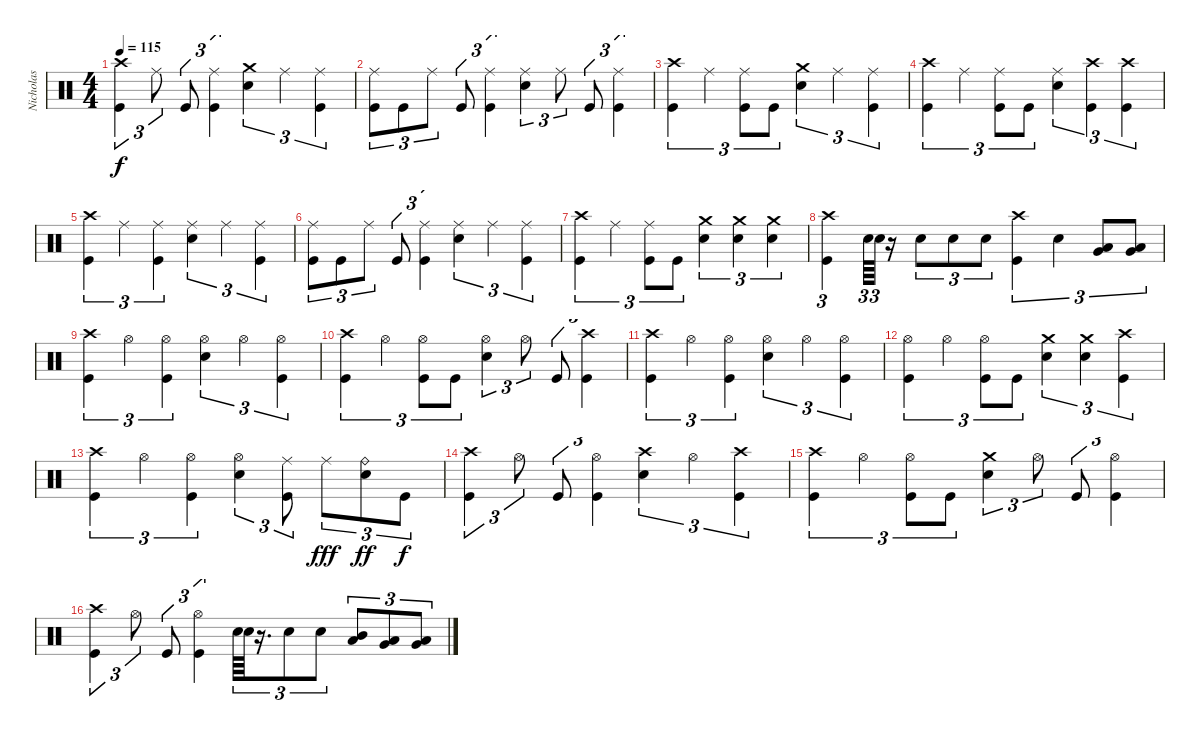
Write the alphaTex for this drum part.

\track ("Nicholas" "Nicholas") {instrument percussion}
\staff {score}
\articulation defaults
\ts (4 4)
\tempo 115
\clef neutral
\ks c
("Crash high (hit)" "Kick (hit)").4{tu (3 2) dy f} "Ride (middle)".8{tu (3 2)} "Kick (hit)".8{tu (3 2)} ("Ride (middle)" "Kick (hit)").4{tu (3 2)} ("Crash medium (hit)" "Electric Snare (hit)").4{tu (3 2)} "Ride (middle)".4{tu (3 2)} ("Ride (middle)" "Kick (hit)").4{tu (3 2)} |
("Ride (middle)" "Kick (hit)").8{tu (3 2)} "Kick (hit)".8{tu (3 2)} "Ride (middle)".8{tu (3 2)} "Kick (hit)".8{tu (3 2)} ("Ride (middle)" "Kick (hit)").4{tu (3 2)} ("Ride (middle)" "Electric Snare (hit)").4{tu (3 2)} "Ride (middle)".8{tu (3 2)} "Kick (hit)".8{tu (3 2)} ("Ride (middle)" "Kick (hit)").4{tu (3 2)} |
("Crash high (hit)" "Kick (hit)").4{tu (3 2)} "Ride (middle)".4{tu (3 2)} ("Ride (middle)" "Kick (hit)").8{tu (3 2)} "Kick (hit)".8{tu (3 2)} ("Crash medium (hit)" "Electric Snare (hit)").4{tu (3 2)} "Ride (middle)".4{tu (3 2)} ("Ride (middle)" "Kick (hit)").4{tu (3 2)} |
("Crash high (hit)" "Kick (hit)").4{tu (3 2)} "Ride (middle)".4{tu (3 2)} ("Ride (middle)" "Kick (hit)").8{tu (3 2)} "Kick (hit)".8{tu (3 2)} ("Ride (middle)" "Electric Snare (hit)").4{tu (3 2)} ("Crash high (hit)" "Kick (hit)").4{tu (3 2)} ("Crash high (hit)" "Kick (hit)").4{tu (3 2)} |
("Crash high (hit)" "Kick (hit)").4{tu (3 2)} "Ride (middle)".4{tu (3 2)} ("Ride (middle)" "Kick (hit)").4{tu (3 2)} ("Ride (middle)" "Electric Snare (hit)").4{tu (3 2)} "Ride (middle)".4{tu (3 2)} ("Ride (middle)" "Kick (hit)").4{tu (3 2)} |
("Ride (middle)" "Kick (hit)").8{tu (3 2)} "Kick (hit)".8{tu (3 2)} "Ride (middle)".8{tu (3 2)} "Kick (hit)".8{tu (3 2)} ("Ride (middle)" "Kick (hit)").4{tu (3 2)} ("Ride (middle)" "Electric Snare (hit)").4{tu (3 2)} "Ride (middle)".4{tu (3 2)} ("Ride (middle)" "Kick (hit)").4{tu (3 2)} |
("Crash high (hit)" "Kick (hit)").4{tu (3 2)} "Ride (middle)".4{tu (3 2)} ("Ride (middle)" "Kick (hit)").8{tu (3 2)} "Kick (hit)".8{tu (3 2)} ("Crash medium (hit)" "Electric Snare (hit)").4{tu (3 2)} ("Crash medium (hit)" "Electric Snare (hit)").4{tu (3 2)} ("Crash medium (hit)" "Electric Snare (hit)").4{tu (3 2)} |
("Crash high (hit)" "Kick (hit)").4{tu (3 2)} "Electric Snare (hit)".64{tu (3 2)} "Electric Snare (hit)".64{tu (3 2)} r.16 "Electric Snare (hit)".8{tu (3 2)} "Electric Snare (hit)".8{tu (3 2)} "Electric Snare (hit)".8{tu (3 2)} ("Crash high (hit)" "Kick (hit)").4{tu (3 2)} "Electric Snare (hit)".4{tu (3 2)} ("Low Tom (hit)" "Very Low Tom (hit)").8{tu (3 2) bu 60} ("Low Tom (hit)" "Very Low Tom (hit)").8{tu (3 2) bu 60} |
("Crash high (hit)" "Kick (hit)").4{tu (3 2)} "Hi-Hat (open)".4{tu (3 2)} ("Hi-Hat (open)" "Kick (hit)").4{tu (3 2)} ("Hi-Hat (open)" "Electric Snare (hit)").4{tu (3 2)} "Hi-Hat (open)".4{tu (3 2)} ("Hi-Hat (open)" "Kick (hit)").4{tu (3 2)} |
("Crash high (hit)" "Kick (hit)").4{tu (3 2)} "Hi-Hat (open)".4{tu (3 2)} ("Hi-Hat (open)" "Kick (hit)").8{tu (3 2)} "Kick (hit)".8{tu (3 2)} ("Hi-Hat (open)" "Electric Snare (hit)").4{tu (3 2)} "Hi-Hat (open)".8{tu (3 2)} "Kick (hit)".8{tu (3 2)} ("Crash high (hit)" "Kick (hit)").4{tu (3 2)} |
("Crash high (hit)" "Kick (hit)").4{tu (3 2)} "Hi-Hat (open)".4{tu (3 2)} ("Hi-Hat (open)" "Kick (hit)").4{tu (3 2)} ("Hi-Hat (open)" "Electric Snare (hit)").4{tu (3 2)} "Hi-Hat (open)".4{tu (3 2)} ("Hi-Hat (open)" "Kick (hit)").4{tu (3 2)} |
("Hi-Hat (open)" "Kick (hit)").4{tu (3 2)} "Hi-Hat (open)".4{tu (3 2)} ("Hi-Hat (open)" "Kick (hit)").8{tu (3 2)} "Kick (hit)".8{tu (3 2)} ("Crash medium (hit)" "Electric Snare (hit)").4{tu (3 2)} ("Crash medium (hit)" "Electric Snare (hit)").4{tu (3 2)} ("Crash high (hit)" "Kick (hit)").4{tu (3 2)} |
("Crash high (hit)" "Kick (hit)").4{tu (3 2)} "Hi-Hat (open)".4{tu (3 2)} ("Hi-Hat (open)" "Kick (hit)").4{tu (3 2)} ("Hi-Hat (open)" "Electric Snare (hit)").4{tu (3 2)} ("Ride (middle)" "Kick (hit)").8{tu (3 2)} "Ride (middle)".8{tu (3 2) dy fff} ("Ride (bell)" "Electric Snare (hit)").8{tu (3 2) dy ff} "Kick (hit)".8{tu (3 2) dy f} |
("Crash high (hit)" "Kick (hit)").4{tu (3 2)} "Hi-Hat (open)".8{tu (3 2)} "Kick (hit)".8{tu (3 2)} ("Hi-Hat (open)" "Kick (hit)").4{tu (3 2)} ("Crash high (hit)" "Electric Snare (hit)").4{tu (3 2)} "Hi-Hat (open)".4{tu (3 2)} ("Crash high (hit)" "Kick (hit)").4{tu (3 2)} |
("Crash high (hit)" "Kick (hit)").4{tu (3 2)} "Hi-Hat (open)".4{tu (3 2)} ("Hi-Hat (open)" "Kick (hit)").8{tu (3 2)} "Kick (hit)".8{tu (3 2)} ("Crash medium (hit)" "Electric Snare (hit)").4{tu (3 2)} "Hi-Hat (open)".8{tu (3 2)} "Kick (hit)".8{tu (3 2)} ("Hi-Hat (open)" "Kick (hit)").4{tu (3 2)} |
("Crash high (hit)" "Kick (hit)").4{tu (3 2)} "Hi-Hat (open)".8{tu (3 2)} "Kick (hit)".8{tu (3 2)} ("Hi-Hat (open)" "Kick (hit)").4{tu (3 2)} "Electric Snare (hit)".64{tu (3 2)} "Electric Snare (hit)".64{tu (3 2)} r.16{d tu (3 2)} "Electric Snare (hit)".8{tu (3 2)} "Electric Snare (hit)".8{tu (3 2)} ("Mid Tom (hit)" "Low Tom (hit)").8{tu (3 2) bu 60} ("Low Tom (hit)" "Very Low Tom (hit)").8{tu (3 2) bu 60} ("Low Tom (hit)" "Very Low Tom (hit)").8{tu (3 2) bu 60}
